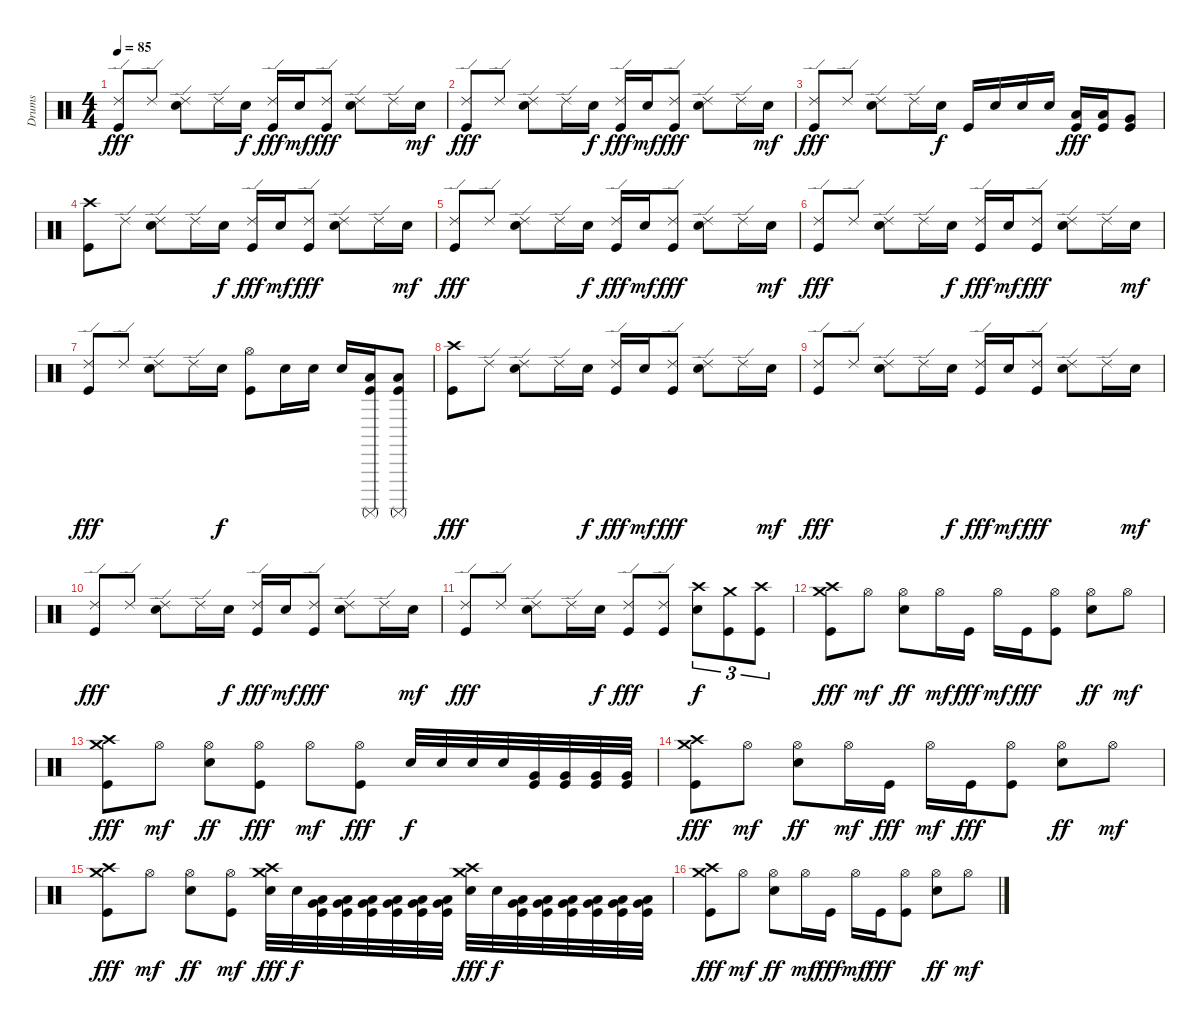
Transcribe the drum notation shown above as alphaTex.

\track ("Drums" "Drums") {instrument percussion}
\staff {score}
\articulation defaults
\ts (4 4)
\tempo 85
\clef neutral
\ks c
("Ride (edge) 2" "Kick (hit)").8{dy fff} "Ride (edge) 2".8 ("Ride (edge) 2" "Snare (hit) 2").8 "Ride (edge) 2".16 "Snare (hit) 2".16{dy f} ("Ride (edge) 2" "Kick (hit)").16{dy fff} "Snare (hit) 2".16{dy mf} ("Ride (edge) 2" "Kick (hit)").8{dy fff} ("Ride (edge) 2" "Snare (hit) 2").8 "Ride (edge) 2".16 "Snare (hit) 2".16{dy mf} |
("Ride (edge) 2" "Kick (hit)").8{dy fff} "Ride (edge) 2".8 ("Ride (edge) 2" "Snare (hit) 2").8 "Ride (edge) 2".16 "Snare (hit) 2".16{dy f} ("Ride (edge) 2" "Kick (hit)").16{dy fff} "Snare (hit) 2".16{dy mf} ("Ride (edge) 2" "Kick (hit)").8{dy fff} ("Ride (edge) 2" "Snare (hit) 2").8 "Ride (edge) 2".16 "Snare (hit) 2".16{dy mf} |
("Ride (edge) 2" "Kick (hit)").8{dy fff} "Ride (edge) 2".8 ("Ride (edge) 2" "Snare (hit) 2").8 "Ride (edge) 2".16 "Snare (hit) 2".16{dy f} "Kick (hit)".16 "Snare (hit) 2".16 "Snare (hit) 2".16 "Snare (hit) 2".16 ("Low Tom (hit)" "Kick (hit)").16{dy fff} ("Low Tom (hit)" "Kick (hit)").16 ("Very Low Tom (hit)" "Kick (hit)").8 |
("Crash high (hit)" "Kick (hit)").8 "Ride (edge) 2".8 ("Ride (edge) 2" "Snare (hit) 2").8 "Ride (edge) 2".16 "Snare (hit) 2".16{dy f} ("Ride (edge) 2" "Kick (hit)").16{dy fff} "Snare (hit) 2".16{dy mf} ("Ride (edge) 2" "Kick (hit)").8{dy fff} ("Ride (edge) 2" "Snare (hit) 2").8 "Ride (edge) 2".16 "Snare (hit) 2".16{dy mf} |
("Ride (edge) 2" "Kick (hit)").8{dy fff} "Ride (edge) 2".8 ("Ride (edge) 2" "Snare (hit) 2").8 "Ride (edge) 2".16 "Snare (hit) 2".16{dy f} ("Ride (edge) 2" "Kick (hit)").16{dy fff} "Snare (hit) 2".16{dy mf} ("Ride (edge) 2" "Kick (hit)").8{dy fff} ("Ride (edge) 2" "Snare (hit) 2").8 "Ride (edge) 2".16 "Snare (hit) 2".16{dy mf} |
("Ride (edge) 2" "Kick (hit)").8{dy fff} "Ride (edge) 2".8 ("Ride (edge) 2" "Snare (hit) 2").8 "Ride (edge) 2".16 "Snare (hit) 2".16{dy f} ("Ride (edge) 2" "Kick (hit)").16{dy fff} "Snare (hit) 2".16{dy mf} ("Ride (edge) 2" "Kick (hit)").8{dy fff} ("Ride (edge) 2" "Snare (hit) 2").8 "Ride (edge) 2".16 "Snare (hit) 2".16{dy mf} |
("Ride (edge) 2" "Kick (hit)").8{dy fff} "Ride (edge) 2".8 ("Ride (edge) 2" "Snare (hit) 2").8 "Ride (edge) 2".16 "Snare (hit) 2".16{dy f} ("Hi-Hat (open)" "Kick (hit)").8 "Snare (hit) 2".16 "Snare (hit) 2".16 "Snare (hit) 2".16 ("Surdo (mute)" "Low Floor Tom (hit)" "Kick (hit)").16 ("Surdo (mute)" "Low Floor Tom (hit)" "Kick (hit)").8 |
("Crash high (hit)" "Kick (hit)").8{dy fff} "Ride (edge) 2".8 ("Ride (edge) 2" "Snare (hit) 2").8 "Ride (edge) 2".16 "Snare (hit) 2".16{dy f} ("Ride (edge) 2" "Kick (hit)").16{dy fff} "Snare (hit) 2".16{dy mf} ("Ride (edge) 2" "Kick (hit)").8{dy fff} ("Ride (edge) 2" "Snare (hit) 2").8 "Ride (edge) 2".16 "Snare (hit) 2".16{dy mf} |
("Ride (edge) 2" "Kick (hit)").8{dy fff} "Ride (edge) 2".8 ("Ride (edge) 2" "Snare (hit) 2").8 "Ride (edge) 2".16 "Snare (hit) 2".16{dy f} ("Ride (edge) 2" "Kick (hit)").16{dy fff} "Snare (hit) 2".16{dy mf} ("Ride (edge) 2" "Kick (hit)").8{dy fff} ("Ride (edge) 2" "Snare (hit) 2").8 "Ride (edge) 2".16 "Snare (hit) 2".16{dy mf} |
("Ride (edge) 2" "Kick (hit)").8{dy fff} "Ride (edge) 2".8 ("Ride (edge) 2" "Snare (hit) 2").8 "Ride (edge) 2".16 "Snare (hit) 2".16{dy f} ("Ride (edge) 2" "Kick (hit)").16{dy fff} "Snare (hit) 2".16{dy mf} ("Ride (edge) 2" "Kick (hit)").8{dy fff} ("Ride (edge) 2" "Snare (hit) 2").8 "Ride (edge) 2".16 "Snare (hit) 2".16{dy mf} |
("Ride (edge) 2" "Kick (hit)").8{dy fff} "Ride (edge) 2".8 ("Ride (edge) 2" "Snare (hit) 2").8 "Ride (edge) 2".16 "Snare (hit) 2".16{dy f} ("Ride (edge) 2" "Kick (hit)").8{dy fff} ("Ride (edge) 2" "Kick (hit)").8 ("Crash high (hit)" "Snare (hit) 2").8{tu (3 2) dy f} ("Crash medium (hit)" "Kick (hit)").8{tu (3 2)} ("Crash high (hit)" "Kick (hit)").8{tu (3 2)} |
("Crash high (hit)" "Crash medium (hit)" "Kick (hit)").8{dy fff} "Hi-Hat (open)".8{dy mf} ("Hi-Hat (open)" "Snare (hit) 2").8{dy ff} "Hi-Hat (open)".16{dy mf} "Kick (hit)".16{dy fff} "Hi-Hat (open)".16{dy mf} "Kick (hit)".16{dy fff} ("Hi-Hat (open)" "Kick (hit)").8 ("Hi-Hat (open)" "Snare (hit) 2").8{dy ff} "Hi-Hat (open)".8{dy mf} |
("Crash high (hit)" "Crash medium (hit)" "Kick (hit)").8{dy fff} "Hi-Hat (open)".8{dy mf} ("Hi-Hat (open)" "Snare (hit) 2").8{dy ff} ("Hi-Hat (open)" "Kick (hit)").8{dy fff} "Hi-Hat (open)".8{dy mf} ("Hi-Hat (open)" "Kick (hit)").8{dy fff} "Snare (hit) 2".32{dy f} "Snare (hit) 2".32 "Snare (hit) 2".32 "Snare (hit) 2".32 ("Very Low Tom (hit)" "Kick (hit)").32 ("Very Low Tom (hit)" "Kick (hit)").32 ("Very Low Tom (hit)" "Kick (hit)").32 ("Very Low Tom (hit)" "Kick (hit)").32 |
("Crash high (hit)" "Crash medium (hit)" "Kick (hit)").8{dy fff} "Hi-Hat (open)".8{dy mf} ("Hi-Hat (open)" "Snare (hit) 2").8{dy ff} "Hi-Hat (open)".16{dy mf} "Kick (hit)".16{dy fff} "Hi-Hat (open)".16{dy mf} "Kick (hit)".16{dy fff} ("Hi-Hat (open)" "Kick (hit)").8 ("Hi-Hat (open)" "Snare (hit) 2").8{dy ff} "Hi-Hat (open)".8{dy mf} |
("Crash high (hit)" "Crash medium (hit)" "Kick (hit)").8{dy fff} "Hi-Hat (open)".8{dy mf} ("Hi-Hat (open)" "Snare (hit) 2").8{dy ff} ("Hi-Hat (open)" "Kick (hit)").8{dy mf} ("Crash high (hit)" "Crash medium (hit)" "Snare (hit) 2").32{dy fff} "Snare (hit) 2".32{dy f} ("Low Tom (hit)" "Very Low Tom (hit)" "Kick (hit)").32 ("Low Tom (hit)" "Very Low Tom (hit)" "Kick (hit)").32 ("Low Tom (hit)" "Very Low Tom (hit)" "Kick (hit)").32 ("Low Tom (hit)" "Very Low Tom (hit)" "Kick (hit)").32 ("Low Tom (hit)" "Very Low Tom (hit)" "Kick (hit)").32 ("Low Tom (hit)" "Very Low Tom (hit)" "Kick (hit)").32 ("Crash medium (hit)" "Crash high (hit)" "Snare (hit) 2").32{dy fff} "Snare (hit) 2".32{dy f} ("Low Tom (hit)" "Very Low Tom (hit)" "Kick (hit)").32 ("Low Tom (hit)" "Very Low Tom (hit)" "Kick (hit)").32 ("Low Tom (hit)" "Very Low Tom (hit)" "Kick (hit)").32 ("Low Tom (hit)" "Very Low Tom (hit)" "Kick (hit)").32 ("Low Tom (hit)" "Very Low Tom (hit)" "Kick (hit)").32 ("Low Tom (hit)" "Very Low Tom (hit)" "Kick (hit)").32 |
("Crash high (hit)" "Crash medium (hit)" "Kick (hit)").8{dy fff} "Hi-Hat (open)".8{dy mf} ("Hi-Hat (open)" "Snare (hit) 2").8{dy ff} "Hi-Hat (open)".16{dy mf} "Kick (hit)".16{dy fff} "Hi-Hat (open)".16{dy mf} "Kick (hit)".16{dy fff} ("Hi-Hat (open)" "Kick (hit)").8 ("Hi-Hat (open)" "Snare (hit) 2").8{dy ff} "Hi-Hat (open)".8{dy mf}
